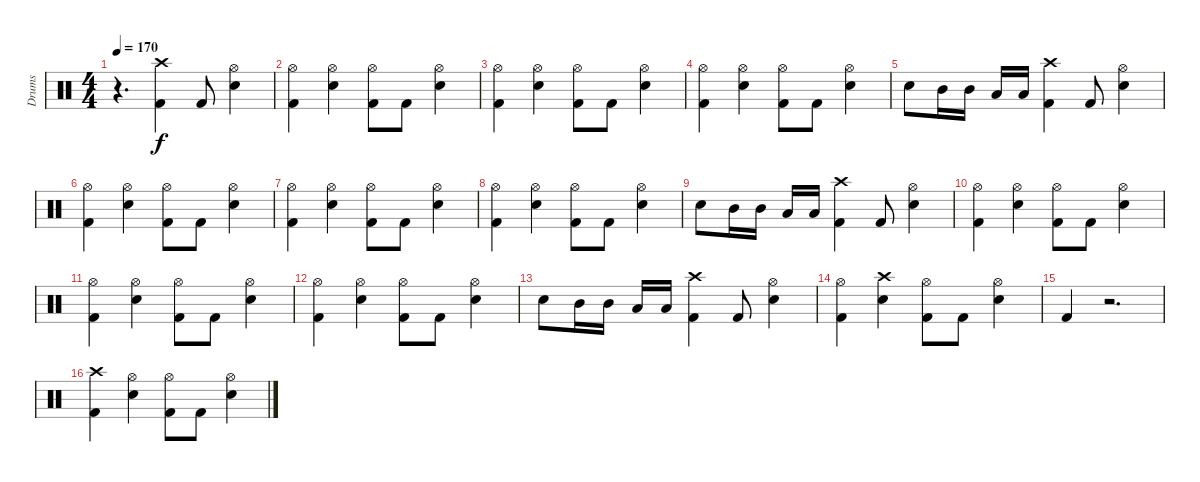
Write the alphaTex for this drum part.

\track ("Drums" "Drums") {instrument percussion}
\staff {score}
\articulation defaults
\ts (4 4)
\tempo 170
\clef neutral
\ks c
r.4{d dy f} ("Crash high (hit)" "Kick (hit) 2").4 "Kick (hit) 2".8 ("Hi-Hat (open)" "Snare (hit) 2").4 |
("Hi-Hat (open)" "Kick (hit) 2").4 ("Hi-Hat (open)" "Snare (hit) 2").4 ("Hi-Hat (open)" "Kick (hit) 2").8 "Kick (hit) 2".8 ("Hi-Hat (open)" "Snare (hit) 2").4 |
("Hi-Hat (open)" "Kick (hit) 2").4 ("Hi-Hat (open)" "Snare (hit) 2").4 ("Hi-Hat (open)" "Kick (hit) 2").8 "Kick (hit) 2".8 ("Hi-Hat (open)" "Snare (hit) 2").4 |
("Hi-Hat (open)" "Kick (hit) 2").4 ("Hi-Hat (open)" "Snare (hit) 2").4 ("Hi-Hat (open)" "Kick (hit) 2").8 "Kick (hit) 2".8 ("Hi-Hat (open)" "Snare (hit) 2").4 |
"Snare (hit) 2".8 "Mid Tom (hit)".16 "Mid Tom (hit)".16 "Low Tom (hit)".16 "Low Tom (hit)".16 ("Crash high (hit)" "Kick (hit) 2").4 "Kick (hit) 2".8 ("Hi-Hat (open)" "Snare (hit) 2").4 |
("Hi-Hat (open)" "Kick (hit) 2").4 ("Hi-Hat (open)" "Snare (hit) 2").4 ("Hi-Hat (open)" "Kick (hit) 2").8 "Kick (hit) 2".8 ("Hi-Hat (open)" "Snare (hit) 2").4 |
("Hi-Hat (open)" "Kick (hit) 2").4 ("Hi-Hat (open)" "Snare (hit) 2").4 ("Hi-Hat (open)" "Kick (hit) 2").8 "Kick (hit) 2".8 ("Hi-Hat (open)" "Snare (hit) 2").4 |
("Hi-Hat (open)" "Kick (hit) 2").4 ("Hi-Hat (open)" "Snare (hit) 2").4 ("Hi-Hat (open)" "Kick (hit) 2").8 "Kick (hit) 2".8 ("Hi-Hat (open)" "Snare (hit) 2").4 |
"Snare (hit) 2".8 "Mid Tom (hit)".16 "Mid Tom (hit)".16 "Low Tom (hit)".16 "Low Tom (hit)".16 ("Crash high (hit)" "Kick (hit) 2").4 "Kick (hit) 2".8 ("Hi-Hat (open)" "Snare (hit) 2").4 |
("Hi-Hat (open)" "Kick (hit) 2").4 ("Hi-Hat (open)" "Snare (hit) 2").4 ("Hi-Hat (open)" "Kick (hit) 2").8 "Kick (hit) 2".8 ("Hi-Hat (open)" "Snare (hit) 2").4 |
("Hi-Hat (open)" "Kick (hit) 2").4 ("Hi-Hat (open)" "Snare (hit) 2").4 ("Hi-Hat (open)" "Kick (hit) 2").8 "Kick (hit) 2".8 ("Hi-Hat (open)" "Snare (hit) 2").4 |
("Hi-Hat (open)" "Kick (hit) 2").4 ("Hi-Hat (open)" "Snare (hit) 2").4 ("Hi-Hat (open)" "Kick (hit) 2").8 "Kick (hit) 2".8 ("Hi-Hat (open)" "Snare (hit) 2").4 |
"Snare (hit) 2".8 "Mid Tom (hit)".16 "Mid Tom (hit)".16 "Low Tom (hit)".16 "Low Tom (hit)".16 ("Crash high (hit)" "Kick (hit) 2").4 "Kick (hit) 2".8 ("Hi-Hat (open)" "Snare (hit) 2").4 |
("Hi-Hat (open)" "Kick (hit) 2").4 ("Crash high (hit)" "Snare (hit) 2").4 ("Hi-Hat (open)" "Kick (hit) 2").8 "Kick (hit) 2".8 ("Hi-Hat (open)" "Snare (hit) 2").4 |
"Kick (hit) 2".4 r.2{d} |
("Crash high (hit)" "Kick (hit) 2").4 ("Hi-Hat (open)" "Snare (hit) 2").4 ("Hi-Hat (open)" "Kick (hit) 2").8 "Kick (hit) 2".8 ("Hi-Hat (open)" "Snare (hit) 2").4
